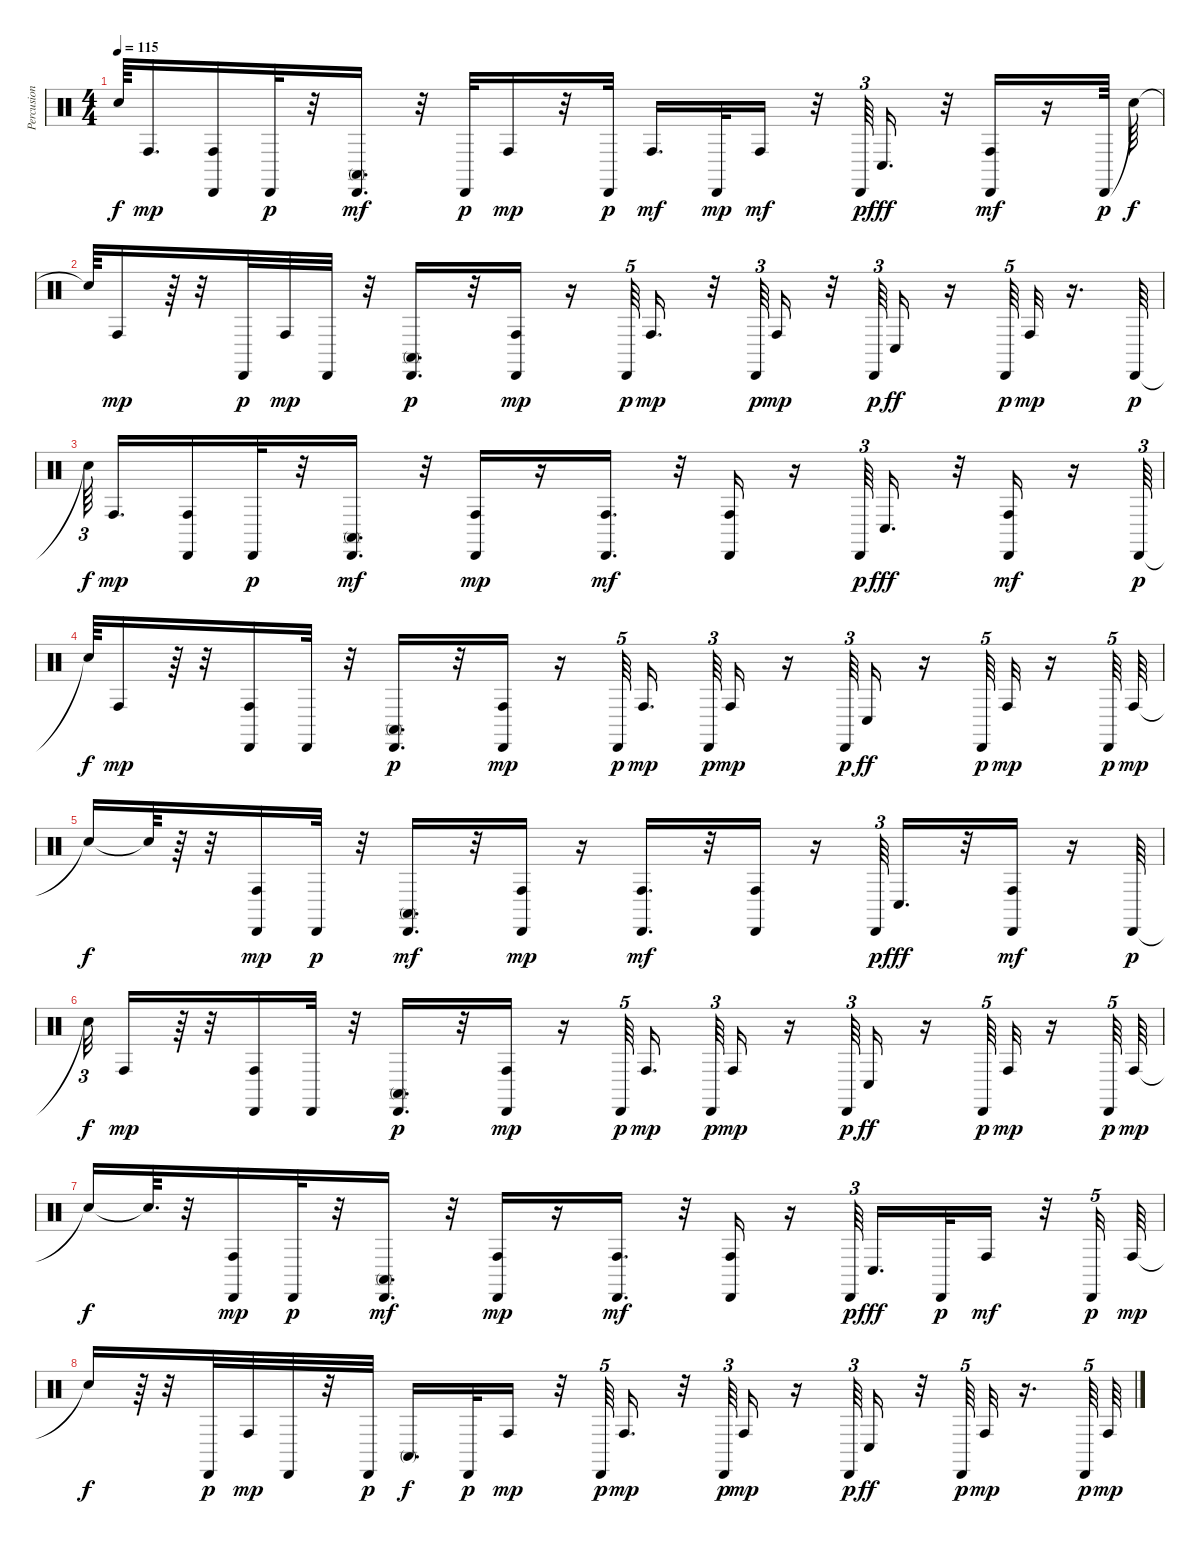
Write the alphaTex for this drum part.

\track ("Percusion" "Percusion") {instrument percussion}
\staff {score}
\articulation defaults
\ts (4 4)
\tempo 115
\clef neutral
\ks c "Snare (hit)"{t}.64{dy f} "Conga high (hit)".16{d dy mp}
("Cabasa (hit)" "Conga high (hit)").16 "Cabasa (hit)".32{dy p} r.32 ("Cabasa (hit)" "Conga high (mute)").16{d dy mf} r.32 "Cabasa (hit)".32{dy p} "Conga high (hit)".16{dy mp} r.32 "Cabasa (hit)".32{dy p} "Conga high (hit)".16{d dy mf} "Cabasa (hit)".32{dy mp} "Conga high (hit)".16{dy mf} r.32 "Cabasa (hit)".64{tu (3 2) dy p} "Conga low (hit)".16{d dy fff} r.32 ("Cabasa (hit)" "Conga high (hit)").16{dy mf} r.16 "Cabasa (hit)".64{dy p} "Snare (hit)"{t}.64{dy f} |
"Snare (hit)"{t}.64 "Conga high (hit)".16{dy mp} r.64 r.32 "Cabasa (hit)".32{dy p} "Conga high (hit)".32{dy mp} "Cabasa (hit)".32 r.32 ("Cabasa (hit)" "Conga high (mute)").16{d dy p} r.32 ("Cabasa (hit)" "Conga high (hit)").16{dy mp} r.16 "Cabasa (hit)".64{tu (5 4) dy p} "Conga high (hit)".16{d dy mp} r.32 "Cabasa (hit)".64{tu (3 2) dy p} "Conga high (hit)".16{dy mp} r.32 "Cabasa (hit)".64{tu (3 2) dy p} "Conga low (hit)".16{dy ff} r.16 "Cabasa (hit)".64{tu (5 4) dy p} "Conga high (hit)".32{dy mp} r.16{d} "Cabasa (hit)".64{dy p} |
"Snare (hit)"{t}.64{tu (3 2) dy f beam splitsecondary} "Conga high (hit)".16{d dy mp} ("Cabasa (hit)" "Conga high (hit)").16 "Cabasa (hit)".32{dy p} r.32 ("Cabasa (hit)" "Conga high (mute)").16{d dy mf} r.32 ("Cabasa (hit)" "Conga high (hit)").16{dy mp} r.16 ("Cabasa (hit)" "Conga high (hit)").16{d dy mf} r.32 ("Cabasa (hit)" "Conga high (hit)").16 r.16 "Cabasa (hit)".64{tu (3 2) dy p} "Conga low (hit)".16{d dy fff} r.32 ("Cabasa (hit)" "Conga high (hit)").16{dy mf} r.16 "Cabasa (hit)".64{tu (3 2) dy p} |
"Snare (hit)"{t}.64{dy f} "Conga high (hit)".16{dy mp} r.64 r.32 ("Cabasa (hit)" "Conga high (hit)").16 "Cabasa (hit)".32 r.32 ("Cabasa (hit)" "Conga high (mute)").16{d dy p} r.32 ("Cabasa (hit)" "Conga high (hit)").16{dy mp} r.16 "Cabasa (hit)".64{tu (5 4) dy p beam splitsecondary} "Conga high (hit)".16{d dy mp beam splitsecondary} "Cabasa (hit)".64{tu (3 2) dy p} "Conga high (hit)".16{dy mp} r.16 "Cabasa (hit)".64{tu (3 2) dy p} "Conga low (hit)".16{dy ff} r.16 "Cabasa (hit)".64{tu (5 4) dy p} "Conga high (hit)".32{dy mp} r.16 "Cabasa (hit)".64{tu (5 4) dy p} "Conga high (hit)".64{dy mp} |
"Snare (hit)"{t}.16{dy f} "Snare (hit)"{t}.64 r.64 r.32 ("Cabasa (hit)" "Conga high (hit)").16{dy mp} "Cabasa (hit)".32{dy p} r.32 ("Cabasa (hit)" "Conga high (mute)").16{d dy mf} r.32 ("Cabasa (hit)" "Conga high (hit)").16{dy mp} r.16 ("Cabasa (hit)" "Conga high (hit)").16{d dy mf} r.32 ("Cabasa (hit)" "Conga high (hit)").16 r.16 "Cabasa (hit)".64{tu (3 2) dy p} "Conga low (hit)".16{d dy fff} r.32 ("Cabasa (hit)" "Conga high (hit)").16{dy mf} r.16 "Cabasa (hit)".64{dy p} |
"Snare (hit)"{t}.32{tu (3 2) dy f} "Conga high (hit)".16{dy mp} r.64 r.32 ("Cabasa (hit)" "Conga high (hit)").16 "Cabasa (hit)".32 r.32 ("Cabasa (hit)" "Conga high (mute)").16{d dy p} r.32 ("Cabasa (hit)" "Conga high (hit)").16{dy mp} r.16 "Cabasa (hit)".64{tu (5 4) dy p beam splitsecondary} "Conga high (hit)".16{d dy mp beam splitsecondary} "Cabasa (hit)".64{tu (3 2) dy p} "Conga high (hit)".16{dy mp} r.16 "Cabasa (hit)".64{tu (3 2) dy p} "Conga low (hit)".16{dy ff} r.16 "Cabasa (hit)".64{tu (5 4) dy p} "Conga high (hit)".32{dy mp} r.16 "Cabasa (hit)".64{tu (5 4) dy p} "Conga high (hit)".64{dy mp} |
"Snare (hit)"{t}.16{dy f} "Snare (hit)"{t}.64{d} r.32 ("Cabasa (hit)" "Conga high (hit)").16{dy mp} "Cabasa (hit)".32{dy p} r.32 ("Cabasa (hit)" "Conga high (mute)").16{d dy mf} r.32 ("Cabasa (hit)" "Conga high (hit)").16{dy mp} r.16 ("Cabasa (hit)" "Conga high (hit)").16{d dy mf} r.32 ("Cabasa (hit)" "Conga high (hit)").16 r.16 "Cabasa (hit)".64{tu (3 2) dy p} "Conga low (hit)".16{d dy fff} "Cabasa (hit)".32{dy p} "Conga high (hit)".16{dy mf} r.32 "Cabasa (hit)".32{tu (5 4) dy p} "Conga high (hit)".64{dy mp} |
"Snare (hit)"{t}.16{dy f} r.64 r.32 "Cabasa (hit)".32{dy p} "Conga high (hit)".32{dy mp} "Cabasa (hit)".32 r.32 "Cabasa (hit)".32{dy p} "Conga high (mute)".16{d dy f} "Cabasa (hit)".32{dy p} "Conga high (hit)".16{dy mp} r.32 "Cabasa (hit)".64{tu (5 4) dy p} "Conga high (hit)".16{d dy mp} r.32 "Cabasa (hit)".64{tu (3 2) dy p} "Conga high (hit)".16{dy mp} r.16 "Cabasa (hit)".64{tu (3 2) dy p} "Conga low (hit)".16{dy ff} r.32 "Cabasa (hit)".64{tu (5 4) dy p} "Conga high (hit)".32{dy mp} r.16{d} "Cabasa (hit)".64{tu (5 4) dy p} "Conga high (hit)".64{dy mp}
